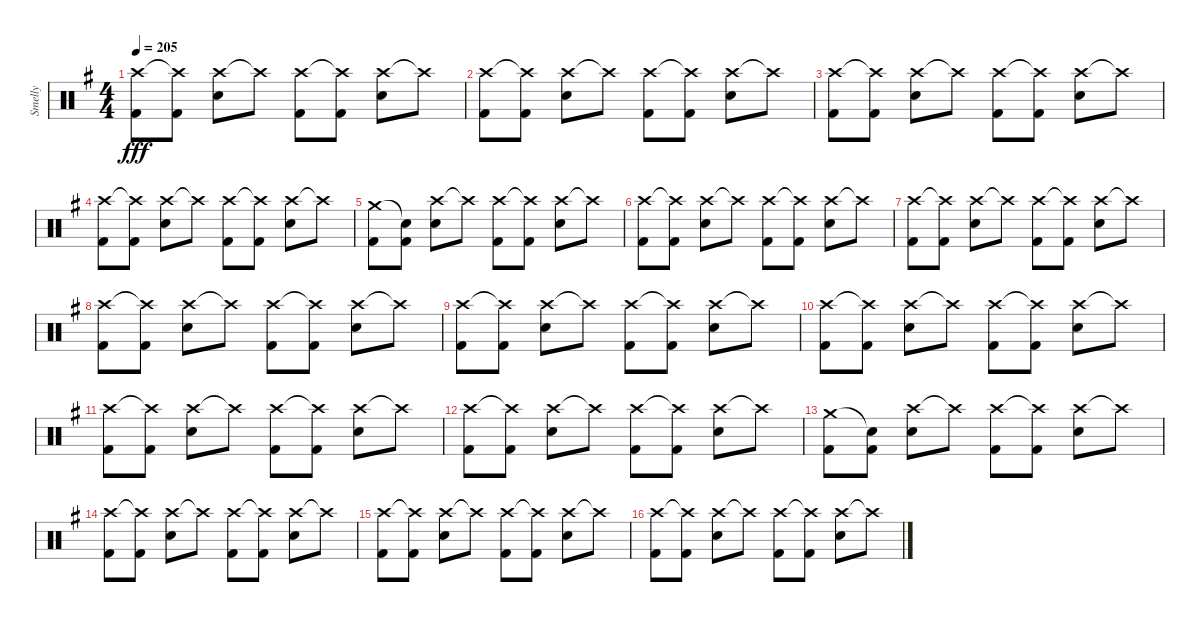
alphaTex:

\track ("Smelly" "Smelly") {instrument percussion}
\staff {score}
\articulation defaults
\ts (4 4)
\tempo 205
\clef neutral
\ks eminor
("Crash high (hit)" "Kick (hit) 2").8{dy fff} ("Crash high (hit)"{t} "Kick (hit) 2").8 ("Crash high (hit)" "Electric Snare (hit)").8 "Crash high (hit)"{t}.8 ("Crash high (hit)" "Kick (hit) 2").8 ("Crash high (hit)"{t} "Kick (hit) 2").8 ("Crash high (hit)" "Electric Snare (hit)").8 "Crash high (hit)"{t}.8 |
("Crash high (hit)" "Kick (hit) 2").8 ("Crash high (hit)"{t} "Kick (hit) 2").8 ("Crash high (hit)" "Electric Snare (hit)").8 "Crash high (hit)"{t}.8 ("Crash high (hit)" "Kick (hit) 2").8 ("Crash high (hit)"{t} "Kick (hit) 2").8 ("Crash high (hit)" "Electric Snare (hit)").8 "Crash high (hit)"{t}.8 |
("Crash high (hit)" "Kick (hit) 2").8 ("Crash high (hit)"{t} "Kick (hit) 2").8 ("Crash high (hit)" "Electric Snare (hit)").8 "Crash high (hit)"{t}.8 ("Crash high (hit)" "Kick (hit) 2").8 ("Crash high (hit)"{t} "Kick (hit) 2").8 ("Crash high (hit)" "Electric Snare (hit)").8 "Crash high (hit)"{t}.8 |
("Crash high (hit)" "Kick (hit) 2").8 ("Crash high (hit)"{t} "Kick (hit) 2").8 ("Crash high (hit)" "Electric Snare (hit)").8 "Crash high (hit)"{t}.8 ("Crash high (hit)" "Kick (hit) 2").8 ("Crash high (hit)"{t} "Kick (hit) 2").8 ("Crash high (hit)" "Electric Snare (hit)").8 "Crash high (hit)"{t}.8 |
("Crash medium (hit)" "Kick (hit) 2").8 ("Snare (hit)"{t} "Kick (hit) 2").8 ("Crash high (hit)" "Electric Snare (hit)").8 "Crash high (hit)"{t}.8 ("Crash high (hit)" "Kick (hit) 2").8 ("Crash high (hit)"{t} "Kick (hit) 2").8 ("Crash high (hit)" "Electric Snare (hit)").8 "Crash high (hit)"{t}.8 |
("Crash high (hit)" "Kick (hit) 2").8 ("Crash high (hit)"{t} "Kick (hit) 2").8 ("Crash high (hit)" "Electric Snare (hit)").8 "Crash high (hit)"{t}.8 ("Crash high (hit)" "Kick (hit) 2").8 ("Crash high (hit)"{t} "Kick (hit) 2").8 ("Crash high (hit)" "Electric Snare (hit)").8 "Crash high (hit)"{t}.8 |
("Crash high (hit)" "Kick (hit) 2").8 ("Crash high (hit)"{t} "Kick (hit) 2").8 ("Crash high (hit)" "Electric Snare (hit)").8 "Crash high (hit)"{t}.8 ("Crash high (hit)" "Kick (hit) 2").8 ("Crash high (hit)"{t} "Kick (hit) 2").8 ("Crash high (hit)" "Electric Snare (hit)").8 "Crash high (hit)"{t}.8 |
("Crash high (hit)" "Kick (hit) 2").8 ("Crash high (hit)"{t} "Kick (hit) 2").8 ("Crash high (hit)" "Electric Snare (hit)").8 "Crash high (hit)"{t}.8 ("Crash high (hit)" "Kick (hit) 2").8 ("Crash high (hit)"{t} "Kick (hit) 2").8 ("Crash high (hit)" "Electric Snare (hit)").8 "Crash high (hit)"{t}.8 |
("Crash high (hit)" "Kick (hit) 2").8 ("Crash high (hit)"{t} "Kick (hit) 2").8 ("Crash high (hit)" "Electric Snare (hit)").8 "Crash high (hit)"{t}.8 ("Crash high (hit)" "Kick (hit) 2").8 ("Crash high (hit)"{t} "Kick (hit) 2").8 ("Crash high (hit)" "Electric Snare (hit)").8 "Crash high (hit)"{t}.8 |
("Crash high (hit)" "Kick (hit) 2").8 ("Crash high (hit)"{t} "Kick (hit) 2").8 ("Crash high (hit)" "Electric Snare (hit)").8 "Crash high (hit)"{t}.8 ("Crash high (hit)" "Kick (hit) 2").8 ("Crash high (hit)"{t} "Kick (hit) 2").8 ("Crash high (hit)" "Electric Snare (hit)").8 "Crash high (hit)"{t}.8 |
("Crash high (hit)" "Kick (hit) 2").8 ("Crash high (hit)"{t} "Kick (hit) 2").8 ("Crash high (hit)" "Electric Snare (hit)").8 "Crash high (hit)"{t}.8 ("Crash high (hit)" "Kick (hit) 2").8 ("Crash high (hit)"{t} "Kick (hit) 2").8 ("Crash high (hit)" "Electric Snare (hit)").8 "Crash high (hit)"{t}.8 |
("Crash high (hit)" "Kick (hit) 2").8 ("Crash high (hit)"{t} "Kick (hit) 2").8 ("Crash high (hit)" "Electric Snare (hit)").8 "Crash high (hit)"{t}.8 ("Crash high (hit)" "Kick (hit) 2").8 ("Crash high (hit)"{t} "Kick (hit) 2").8 ("Crash high (hit)" "Electric Snare (hit)").8 "Crash high (hit)"{t}.8 |
("Crash medium (hit)" "Kick (hit) 2").8 ("Snare (hit)"{t} "Kick (hit) 2").8 ("Crash high (hit)" "Electric Snare (hit)").8 "Crash high (hit)"{t}.8 ("Crash high (hit)" "Kick (hit) 2").8 ("Crash high (hit)"{t} "Kick (hit) 2").8 ("Crash high (hit)" "Electric Snare (hit)").8 "Crash high (hit)"{t}.8 |
("Crash high (hit)" "Kick (hit) 2").8 ("Crash high (hit)"{t} "Kick (hit) 2").8 ("Crash high (hit)" "Electric Snare (hit)").8 "Crash high (hit)"{t}.8 ("Crash high (hit)" "Kick (hit) 2").8 ("Crash high (hit)"{t} "Kick (hit) 2").8 ("Crash high (hit)" "Electric Snare (hit)").8 "Crash high (hit)"{t}.8 |
("Crash high (hit)" "Kick (hit) 2").8 ("Crash high (hit)"{t} "Kick (hit) 2").8 ("Crash high (hit)" "Electric Snare (hit)").8 "Crash high (hit)"{t}.8 ("Crash high (hit)" "Kick (hit) 2").8 ("Crash high (hit)"{t} "Kick (hit) 2").8 ("Crash high (hit)" "Electric Snare (hit)").8 "Crash high (hit)"{t}.8 |
("Crash high (hit)" "Kick (hit) 2").8 ("Crash high (hit)"{t} "Kick (hit) 2").8 ("Crash high (hit)" "Electric Snare (hit)").8 "Crash high (hit)"{t}.8 ("Crash high (hit)" "Kick (hit) 2").8 ("Crash high (hit)"{t} "Kick (hit) 2").8 ("Crash high (hit)" "Electric Snare (hit)").8 "Crash high (hit)"{t}.8
